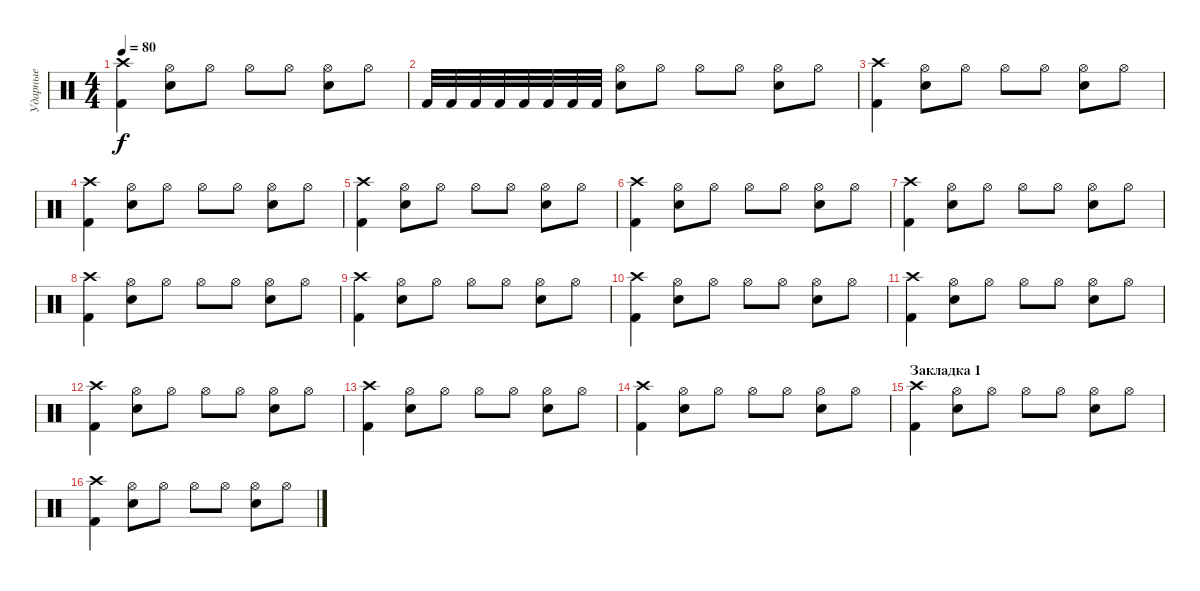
\track ("Ударные" "Ударные") {instrument percussion}
\staff {score}
\articulation defaults
\ts (4 4)
\tempo 80
\clef neutral
\ks c
("Crash high (hit)" "Kick (hit) 2").4{dy f} ("Hi-Hat (open)" "Snare (hit) 2").8 "Hi-Hat (open)".8 "Hi-Hat (open)".8 "Hi-Hat (open)".8 ("Hi-Hat (open)" "Snare (hit) 2").8 "Hi-Hat (open)".8 |
"Kick (hit) 2".32 "Kick (hit) 2".32 "Kick (hit) 2".32 "Kick (hit) 2".32 "Kick (hit) 2".32 "Kick (hit) 2".32 "Kick (hit) 2".32 "Kick (hit) 2".32 ("Hi-Hat (open)" "Snare (hit) 2").8 "Hi-Hat (open)".8 "Hi-Hat (open)".8 "Hi-Hat (open)".8 ("Hi-Hat (open)" "Snare (hit) 2").8 "Hi-Hat (open)".8 |
("Crash high (hit)" "Kick (hit) 2").4 ("Hi-Hat (open)" "Snare (hit) 2").8 "Hi-Hat (open)".8 "Hi-Hat (open)".8 "Hi-Hat (open)".8 ("Hi-Hat (open)" "Snare (hit) 2").8 "Hi-Hat (open)".8 |
("Crash high (hit)" "Kick (hit) 2").4 ("Hi-Hat (open)" "Snare (hit) 2").8 "Hi-Hat (open)".8 "Hi-Hat (open)".8 "Hi-Hat (open)".8 ("Hi-Hat (open)" "Snare (hit) 2").8 "Hi-Hat (open)".8 |
("Crash high (hit)" "Kick (hit) 2").4 ("Hi-Hat (open)" "Snare (hit) 2").8 "Hi-Hat (open)".8 "Hi-Hat (open)".8 "Hi-Hat (open)".8 ("Hi-Hat (open)" "Snare (hit) 2").8 "Hi-Hat (open)".8 |
("Crash high (hit)" "Kick (hit) 2").4 ("Hi-Hat (open)" "Snare (hit) 2").8 "Hi-Hat (open)".8 "Hi-Hat (open)".8 "Hi-Hat (open)".8 ("Hi-Hat (open)" "Snare (hit) 2").8 "Hi-Hat (open)".8 |
("Crash high (hit)" "Kick (hit) 2").4 ("Hi-Hat (open)" "Snare (hit) 2").8 "Hi-Hat (open)".8 "Hi-Hat (open)".8 "Hi-Hat (open)".8 ("Hi-Hat (open)" "Snare (hit) 2").8 "Hi-Hat (open)".8 |
("Crash high (hit)" "Kick (hit) 2").4 ("Hi-Hat (open)" "Snare (hit) 2").8 "Hi-Hat (open)".8 "Hi-Hat (open)".8 "Hi-Hat (open)".8 ("Hi-Hat (open)" "Snare (hit) 2").8 "Hi-Hat (open)".8 |
("Crash high (hit)" "Kick (hit) 2").4 ("Hi-Hat (open)" "Snare (hit) 2").8 "Hi-Hat (open)".8 "Hi-Hat (open)".8 "Hi-Hat (open)".8 ("Hi-Hat (open)" "Snare (hit) 2").8 "Hi-Hat (open)".8 |
("Crash high (hit)" "Kick (hit) 2").4 ("Hi-Hat (open)" "Snare (hit) 2").8 "Hi-Hat (open)".8 "Hi-Hat (open)".8 "Hi-Hat (open)".8 ("Hi-Hat (open)" "Snare (hit) 2").8 "Hi-Hat (open)".8 |
("Crash high (hit)" "Kick (hit) 2").4 ("Hi-Hat (open)" "Snare (hit) 2").8 "Hi-Hat (open)".8 "Hi-Hat (open)".8 "Hi-Hat (open)".8 ("Hi-Hat (open)" "Snare (hit) 2").8 "Hi-Hat (open)".8 |
("Crash high (hit)" "Kick (hit) 2").4 ("Hi-Hat (open)" "Snare (hit) 2").8 "Hi-Hat (open)".8 "Hi-Hat (open)".8 "Hi-Hat (open)".8 ("Hi-Hat (open)" "Snare (hit) 2").8 "Hi-Hat (open)".8 |
("Crash high (hit)" "Kick (hit) 2").4 ("Hi-Hat (open)" "Snare (hit) 2").8 "Hi-Hat (open)".8 "Hi-Hat (open)".8 "Hi-Hat (open)".8 ("Hi-Hat (open)" "Snare (hit) 2").8 "Hi-Hat (open)".8 |
("Crash high (hit)" "Kick (hit) 2").4 ("Hi-Hat (open)" "Snare (hit) 2").8 "Hi-Hat (open)".8 "Hi-Hat (open)".8 "Hi-Hat (open)".8 ("Hi-Hat (open)" "Snare (hit) 2").8 "Hi-Hat (open)".8 |
\section ("" "Закладка 1")
("Crash high (hit)" "Kick (hit) 2").4 ("Hi-Hat (open)" "Snare (hit) 2").8 "Hi-Hat (open)".8 "Hi-Hat (open)".8 "Hi-Hat (open)".8 ("Hi-Hat (open)" "Snare (hit) 2").8 "Hi-Hat (open)".8 |
("Crash high (hit)" "Kick (hit) 2").4 ("Hi-Hat (open)" "Snare (hit) 2").8 "Hi-Hat (open)".8 "Hi-Hat (open)".8 "Hi-Hat (open)".8 ("Hi-Hat (open)" "Snare (hit) 2").8 "Hi-Hat (open)".8
